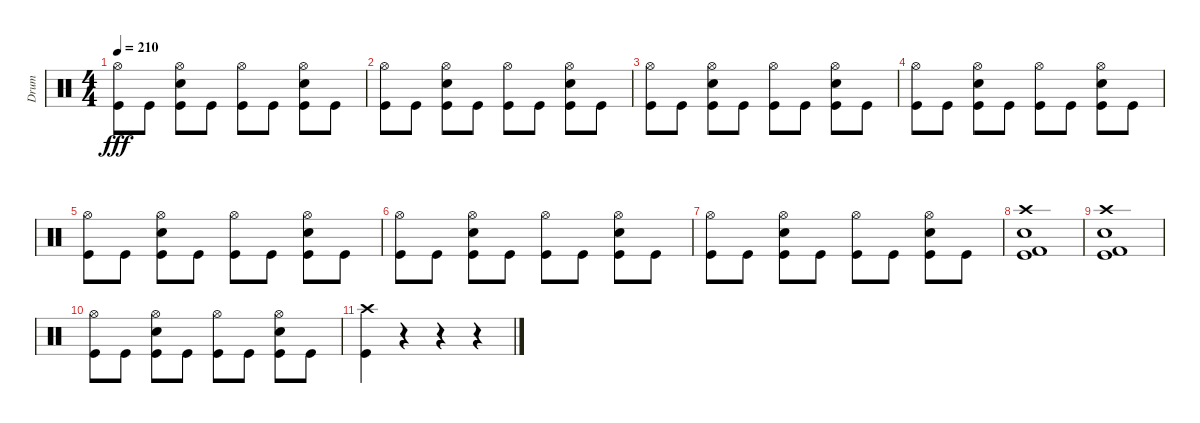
\track ("Drum" "Drum") {instrument percussion}
\staff {score}
\articulation defaults
\ts (4 4)
\tempo 210
\clef neutral
\ks c
("Hi-Hat (open)" "Kick (hit)").8{dy fff} "Kick (hit)".8 ("Hi-Hat (open)" "Snare (hit) 2" "Kick (hit)").8 "Kick (hit)".8 ("Hi-Hat (open)" "Kick (hit)").8 "Kick (hit)".8 ("Hi-Hat (open)" "Snare (hit) 2" "Kick (hit)").8 "Kick (hit)".8 |
("Hi-Hat (open)" "Kick (hit)").8 "Kick (hit)".8 ("Hi-Hat (open)" "Snare (hit) 2" "Kick (hit)").8 "Kick (hit)".8 ("Hi-Hat (open)" "Kick (hit)").8 "Kick (hit)".8 ("Hi-Hat (open)" "Snare (hit) 2" "Kick (hit)").8 "Kick (hit)".8 |
("Hi-Hat (open)" "Kick (hit)").8 "Kick (hit)".8 ("Hi-Hat (open)" "Snare (hit) 2" "Kick (hit)").8 "Kick (hit)".8 ("Hi-Hat (open)" "Kick (hit)").8 "Kick (hit)".8 ("Hi-Hat (open)" "Snare (hit) 2" "Kick (hit)").8 "Kick (hit)".8 |
("Hi-Hat (open)" "Kick (hit)").8 "Kick (hit)".8 ("Hi-Hat (open)" "Snare (hit) 2" "Kick (hit)").8 "Kick (hit)".8 ("Hi-Hat (open)" "Kick (hit)").8 "Kick (hit)".8 ("Hi-Hat (open)" "Snare (hit) 2" "Kick (hit)").8 "Kick (hit)".8 |
("Hi-Hat (open)" "Kick (hit)").8 "Kick (hit)".8 ("Hi-Hat (open)" "Snare (hit) 2" "Kick (hit)").8 "Kick (hit)".8 ("Hi-Hat (open)" "Kick (hit)").8 "Kick (hit)".8 ("Hi-Hat (open)" "Snare (hit) 2" "Kick (hit)").8 "Kick (hit)".8 |
("Hi-Hat (open)" "Kick (hit)").8 "Kick (hit)".8 ("Hi-Hat (open)" "Snare (hit) 2" "Kick (hit)").8 "Kick (hit)".8 ("Hi-Hat (open)" "Kick (hit)").8 "Kick (hit)".8 ("Hi-Hat (open)" "Snare (hit) 2" "Kick (hit)").8 "Kick (hit)".8 |
("Hi-Hat (open)" "Kick (hit)").8 "Kick (hit)".8 ("Hi-Hat (open)" "Snare (hit) 2" "Kick (hit)").8 "Kick (hit)".8 ("Hi-Hat (open)" "Kick (hit)").8 "Kick (hit)".8 ("Hi-Hat (open)" "Snare (hit) 2" "Kick (hit)").8 "Kick (hit)".8 |
("Crash high (hit)" "Snare (hit) 2" "Kick (hit)" "Kick (hit) 2").1 |
("Crash high (hit)" "Snare (hit) 2" "Kick (hit)" "Kick (hit) 2").1 |
("Hi-Hat (open)" "Kick (hit)").8 "Kick (hit)".8 ("Hi-Hat (open)" "Snare (hit) 2" "Kick (hit)").8 "Kick (hit)".8 ("Hi-Hat (open)" "Kick (hit)").8 "Kick (hit)".8 ("Hi-Hat (open)" "Snare (hit) 2" "Kick (hit)").8 "Kick (hit)".8 |
("Crash high (hit)" "Kick (hit)").4 r.4 r.4 r.4
